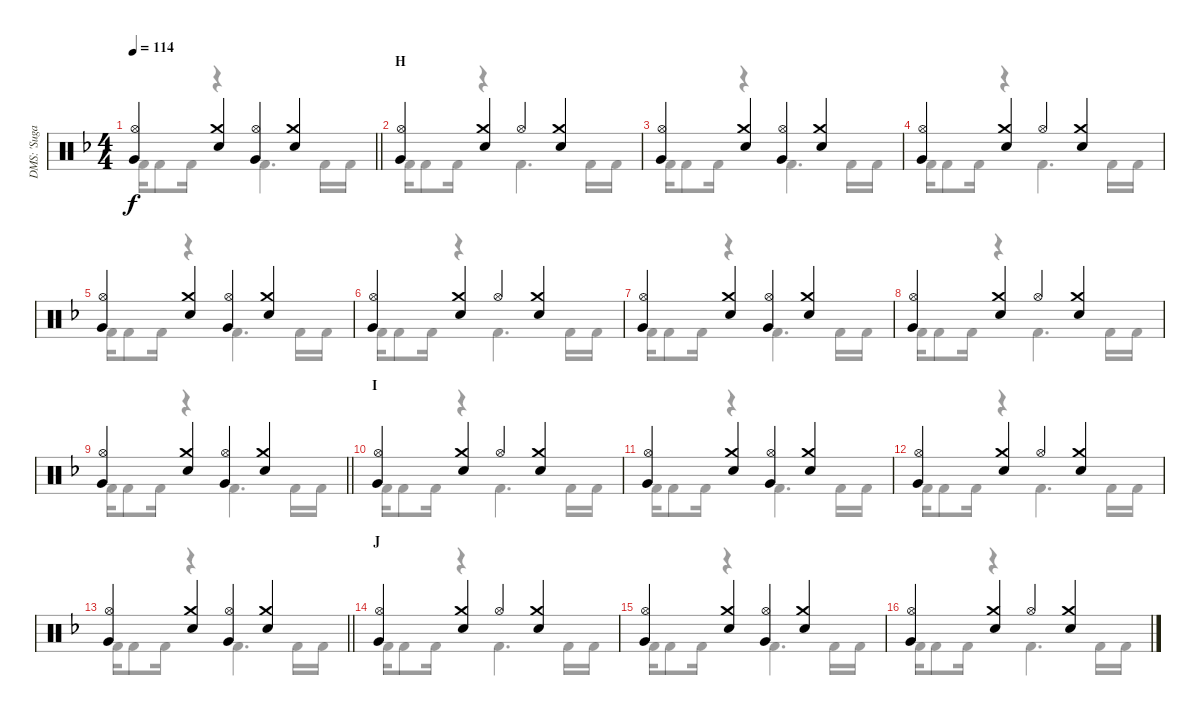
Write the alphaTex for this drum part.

\track ("DMS: 'Sugarfoot' Moffett" "DMS: 'Suga") {instrument percussion}
\staff {score}
\articulation defaults
\voice
\ts (4 4)
\tempo 114
\clef neutral
\barLineRight lightlight
\ks f
("Hi-Hat (open)" "Very Low Tom (hit)").4{dy f} ("Crash medium (hit)" "Snare (hit) 2").4 ("Hi-Hat (open)" "Very Low Tom (hit)").4 ("Crash medium (hit)" "Snare (hit) 2").4 |
\section ("" "H")
("Hi-Hat (open)" "Very Low Tom (hit)").4 ("Crash medium (hit)" "Snare (hit) 2").4 "Hi-Hat (open)".4 ("Crash medium (hit)" "Snare (hit) 2").4 |
("Hi-Hat (open)" "Very Low Tom (hit)").4 ("Crash medium (hit)" "Snare (hit) 2").4 ("Hi-Hat (open)" "Very Low Tom (hit)").4 ("Crash medium (hit)" "Snare (hit) 2").4 |
("Hi-Hat (open)" "Very Low Tom (hit)").4 ("Crash medium (hit)" "Snare (hit) 2").4 "Hi-Hat (open)".4 ("Crash medium (hit)" "Snare (hit) 2").4 |
("Hi-Hat (open)" "Very Low Tom (hit)").4 ("Crash medium (hit)" "Snare (hit) 2").4 ("Hi-Hat (open)" "Very Low Tom (hit)").4 ("Crash medium (hit)" "Snare (hit) 2").4 |
("Hi-Hat (open)" "Very Low Tom (hit)").4 ("Crash medium (hit)" "Snare (hit) 2").4 "Hi-Hat (open)".4 ("Crash medium (hit)" "Snare (hit) 2").4 |
("Hi-Hat (open)" "Very Low Tom (hit)").4 ("Crash medium (hit)" "Snare (hit) 2").4 ("Hi-Hat (open)" "Very Low Tom (hit)").4 ("Crash medium (hit)" "Snare (hit) 2").4 |
("Hi-Hat (open)" "Very Low Tom (hit)").4 ("Crash medium (hit)" "Snare (hit) 2").4 "Hi-Hat (open)".4 ("Crash medium (hit)" "Snare (hit) 2").4 |
\barLineRight lightlight
("Hi-Hat (open)" "Very Low Tom (hit)").4 ("Crash medium (hit)" "Snare (hit) 2").4 ("Hi-Hat (open)" "Very Low Tom (hit)").4 ("Crash medium (hit)" "Snare (hit) 2").4 |
\section ("" "I")
("Hi-Hat (open)" "Very Low Tom (hit)").4 ("Crash medium (hit)" "Snare (hit) 2").4 "Hi-Hat (open)".4 ("Crash medium (hit)" "Snare (hit) 2").4 |
("Hi-Hat (open)" "Very Low Tom (hit)").4 ("Crash medium (hit)" "Snare (hit) 2").4 ("Hi-Hat (open)" "Very Low Tom (hit)").4 ("Crash medium (hit)" "Snare (hit) 2").4 |
("Hi-Hat (open)" "Very Low Tom (hit)").4 ("Crash medium (hit)" "Snare (hit) 2").4 "Hi-Hat (open)".4 ("Crash medium (hit)" "Snare (hit) 2").4 |
\barLineRight lightlight
("Hi-Hat (open)" "Very Low Tom (hit)").4 ("Crash medium (hit)" "Snare (hit) 2").4 ("Hi-Hat (open)" "Very Low Tom (hit)").4 ("Crash medium (hit)" "Snare (hit) 2").4 |
\section ("" "J")
("Hi-Hat (open)" "Very Low Tom (hit)").4 ("Crash medium (hit)" "Snare (hit) 2").4 "Hi-Hat (open)".4 ("Crash medium (hit)" "Snare (hit) 2").4 |
("Hi-Hat (open)" "Very Low Tom (hit)").4 ("Crash medium (hit)" "Snare (hit) 2").4 ("Hi-Hat (open)" "Very Low Tom (hit)").4 ("Crash medium (hit)" "Snare (hit) 2").4 |
("Hi-Hat (open)" "Very Low Tom (hit)").4 ("Crash medium (hit)" "Snare (hit) 2").4 "Hi-Hat (open)".4 ("Crash medium (hit)" "Snare (hit) 2").4
\voice
\clef neutral
\ottava regular
\simile none
\barLineRight lightlight
\ks f "Kick (hit) 2".16{dy f} "Kick (hit) 2".8 "Kick (hit) 2".16
r.4 "Kick (hit) 2".4{d} "Kick (hit) 2".16 "Kick (hit) 2".16 |
"Kick (hit) 2".16 "Kick (hit) 2".8 "Kick (hit) 2".16 r.4 "Kick (hit) 2".4{d} "Kick (hit) 2".16 "Kick (hit) 2".16 |
"Kick (hit) 2".16 "Kick (hit) 2".8 "Kick (hit) 2".16 r.4 "Kick (hit) 2".4{d} "Kick (hit) 2".16 "Kick (hit) 2".16 |
"Kick (hit) 2".16 "Kick (hit) 2".8 "Kick (hit) 2".16 r.4 "Kick (hit) 2".4{d} "Kick (hit) 2".16 "Kick (hit) 2".16 |
"Kick (hit) 2".16 "Kick (hit) 2".8 "Kick (hit) 2".16 r.4 "Kick (hit) 2".4{d} "Kick (hit) 2".16 "Kick (hit) 2".16 |
"Kick (hit) 2".16 "Kick (hit) 2".8 "Kick (hit) 2".16 r.4 "Kick (hit) 2".4{d} "Kick (hit) 2".16 "Kick (hit) 2".16 |
"Kick (hit) 2".16 "Kick (hit) 2".8 "Kick (hit) 2".16 r.4 "Kick (hit) 2".4{d} "Kick (hit) 2".16 "Kick (hit) 2".16 |
"Kick (hit) 2".16 "Kick (hit) 2".8 "Kick (hit) 2".16 r.4 "Kick (hit) 2".4{d} "Kick (hit) 2".16 "Kick (hit) 2".16 |
\barLineRight lightlight "Kick (hit) 2".16 "Kick (hit) 2".8 "Kick (hit) 2".16
r.4 "Kick (hit) 2".4{d} "Kick (hit) 2".16 "Kick (hit) 2".16 |
"Kick (hit) 2".16 "Kick (hit) 2".8 "Kick (hit) 2".16 r.4 "Kick (hit) 2".4{d} "Kick (hit) 2".16 "Kick (hit) 2".16 |
"Kick (hit) 2".16 "Kick (hit) 2".8 "Kick (hit) 2".16 r.4 "Kick (hit) 2".4{d} "Kick (hit) 2".16 "Kick (hit) 2".16 |
"Kick (hit) 2".16 "Kick (hit) 2".8 "Kick (hit) 2".16 r.4 "Kick (hit) 2".4{d} "Kick (hit) 2".16 "Kick (hit) 2".16 |
\barLineRight lightlight "Kick (hit) 2".16 "Kick (hit) 2".8 "Kick (hit) 2".16
r.4 "Kick (hit) 2".4{d} "Kick (hit) 2".16 "Kick (hit) 2".16 |
"Kick (hit) 2".16 "Kick (hit) 2".8 "Kick (hit) 2".16 r.4 "Kick (hit) 2".4{d} "Kick (hit) 2".16 "Kick (hit) 2".16 |
"Kick (hit) 2".16 "Kick (hit) 2".8 "Kick (hit) 2".16 r.4 "Kick (hit) 2".4{d} "Kick (hit) 2".16 "Kick (hit) 2".16 |
"Kick (hit) 2".16 "Kick (hit) 2".8 "Kick (hit) 2".16 r.4 "Kick (hit) 2".4{d} "Kick (hit) 2".16 "Kick (hit) 2".16
